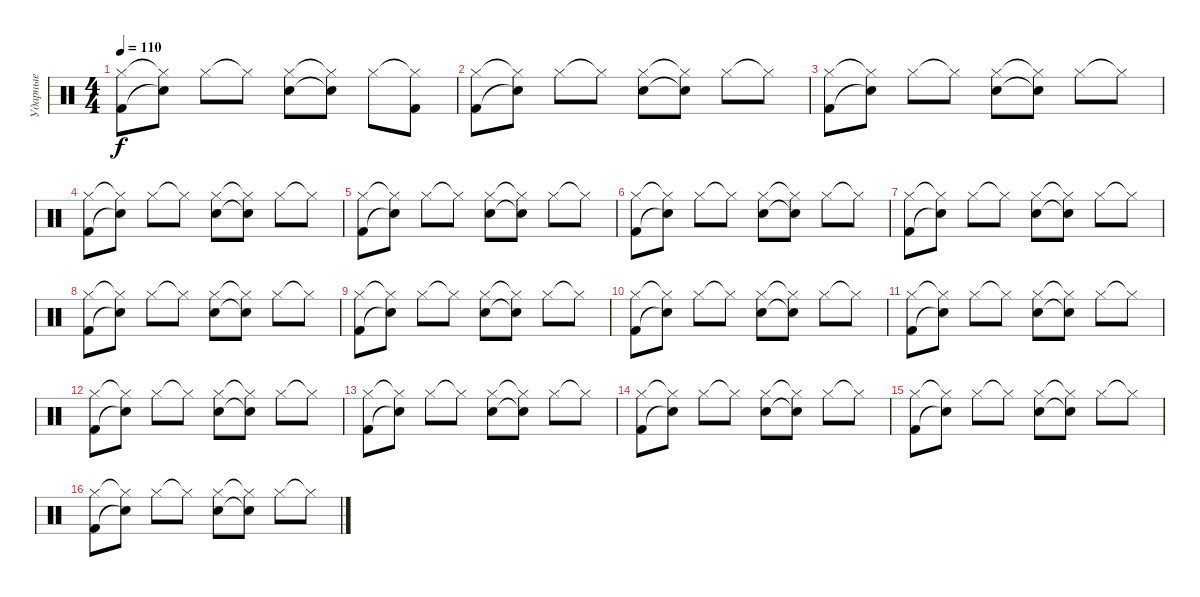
\track ("Ударные" "Ударные") {instrument percussion}
\staff {score}
\articulation defaults
\ts (4 4)
\tempo 110
\clef neutral
\ks c
("Hi-Hat (closed)" "Kick (hit) 2").8{dy f} ("Hi-Hat (closed)"{t} "Snare (hit)"{t}).8 "Hi-Hat (closed)".8 "Hi-Hat (closed)"{t}.8 ("Hi-Hat (closed)" "Snare (hit) 2").8 ("Hi-Hat (closed)"{t} "Snare (hit)"{t}).8 "Hi-Hat (closed)".8 ("Hi-Hat (closed)"{t} "Kick (hit) 2").8 |
("Hi-Hat (closed)" "Kick (hit) 2").8 ("Hi-Hat (closed)"{t} "Snare (hit)"{t}).8 "Hi-Hat (closed)".8 "Hi-Hat (closed)"{t}.8 ("Hi-Hat (closed)" "Snare (hit) 2").8 ("Hi-Hat (closed)"{t} "Snare (hit)"{t}).8 "Hi-Hat (closed)".8 "Hi-Hat (closed)"{t}.8 |
("Hi-Hat (closed)" "Kick (hit) 2").8 ("Hi-Hat (closed)"{t} "Snare (hit)"{t}).8 "Hi-Hat (closed)".8 "Hi-Hat (closed)"{t}.8 ("Hi-Hat (closed)" "Snare (hit) 2").8 ("Hi-Hat (closed)"{t} "Snare (hit)"{t}).8 "Hi-Hat (closed)".8 "Hi-Hat (closed)"{t}.8 |
("Hi-Hat (closed)" "Kick (hit) 2").8 ("Hi-Hat (closed)"{t} "Snare (hit)"{t}).8 "Hi-Hat (closed)".8 "Hi-Hat (closed)"{t}.8 ("Hi-Hat (closed)" "Snare (hit) 2").8 ("Hi-Hat (closed)"{t} "Snare (hit)"{t}).8 "Hi-Hat (closed)".8 "Hi-Hat (closed)"{t}.8 |
("Hi-Hat (closed)" "Kick (hit) 2").8 ("Hi-Hat (closed)"{t} "Snare (hit)"{t}).8 "Hi-Hat (closed)".8 "Hi-Hat (closed)"{t}.8 ("Hi-Hat (closed)" "Snare (hit) 2").8 ("Hi-Hat (closed)"{t} "Snare (hit)"{t}).8 "Hi-Hat (closed)".8 "Hi-Hat (closed)"{t}.8 |
("Hi-Hat (closed)" "Kick (hit) 2").8 ("Hi-Hat (closed)"{t} "Snare (hit)"{t}).8 "Hi-Hat (closed)".8 "Hi-Hat (closed)"{t}.8 ("Hi-Hat (closed)" "Snare (hit) 2").8 ("Hi-Hat (closed)"{t} "Snare (hit)"{t}).8 "Hi-Hat (closed)".8 "Hi-Hat (closed)"{t}.8 |
("Hi-Hat (closed)" "Kick (hit) 2").8 ("Hi-Hat (closed)"{t} "Snare (hit)"{t}).8 "Hi-Hat (closed)".8 "Hi-Hat (closed)"{t}.8 ("Hi-Hat (closed)" "Snare (hit) 2").8 ("Hi-Hat (closed)"{t} "Snare (hit)"{t}).8 "Hi-Hat (closed)".8 "Hi-Hat (closed)"{t}.8 |
("Hi-Hat (closed)" "Kick (hit) 2").8 ("Hi-Hat (closed)"{t} "Snare (hit)"{t}).8 "Hi-Hat (closed)".8 "Hi-Hat (closed)"{t}.8 ("Hi-Hat (closed)" "Snare (hit) 2").8 ("Hi-Hat (closed)"{t} "Snare (hit)"{t}).8 "Hi-Hat (closed)".8 "Hi-Hat (closed)"{t}.8 |
("Hi-Hat (closed)" "Kick (hit) 2").8 ("Hi-Hat (closed)"{t} "Snare (hit)"{t}).8 "Hi-Hat (closed)".8 "Hi-Hat (closed)"{t}.8 ("Hi-Hat (closed)" "Snare (hit) 2").8 ("Hi-Hat (closed)"{t} "Snare (hit)"{t}).8 "Hi-Hat (closed)".8 "Hi-Hat (closed)"{t}.8 |
("Hi-Hat (closed)" "Kick (hit) 2").8 ("Hi-Hat (closed)"{t} "Snare (hit)"{t}).8 "Hi-Hat (closed)".8 "Hi-Hat (closed)"{t}.8 ("Hi-Hat (closed)" "Snare (hit) 2").8 ("Hi-Hat (closed)"{t} "Snare (hit)"{t}).8 "Hi-Hat (closed)".8 "Hi-Hat (closed)"{t}.8 |
("Hi-Hat (closed)" "Kick (hit) 2").8 ("Hi-Hat (closed)"{t} "Snare (hit)"{t}).8 "Hi-Hat (closed)".8 "Hi-Hat (closed)"{t}.8 ("Hi-Hat (closed)" "Snare (hit) 2").8 ("Hi-Hat (closed)"{t} "Snare (hit)"{t}).8 "Hi-Hat (closed)".8 "Hi-Hat (closed)"{t}.8 |
("Hi-Hat (closed)" "Kick (hit) 2").8 ("Hi-Hat (closed)"{t} "Snare (hit)"{t}).8 "Hi-Hat (closed)".8 "Hi-Hat (closed)"{t}.8 ("Hi-Hat (closed)" "Snare (hit) 2").8 ("Hi-Hat (closed)"{t} "Snare (hit)"{t}).8 "Hi-Hat (closed)".8 "Hi-Hat (closed)"{t}.8 |
("Hi-Hat (closed)" "Kick (hit) 2").8 ("Hi-Hat (closed)"{t} "Snare (hit)"{t}).8 "Hi-Hat (closed)".8 "Hi-Hat (closed)"{t}.8 ("Hi-Hat (closed)" "Snare (hit) 2").8 ("Hi-Hat (closed)"{t} "Snare (hit)"{t}).8 "Hi-Hat (closed)".8 "Hi-Hat (closed)"{t}.8 |
("Hi-Hat (closed)" "Kick (hit) 2").8 ("Hi-Hat (closed)"{t} "Snare (hit)"{t}).8 "Hi-Hat (closed)".8 "Hi-Hat (closed)"{t}.8 ("Hi-Hat (closed)" "Snare (hit) 2").8 ("Hi-Hat (closed)"{t} "Snare (hit)"{t}).8 "Hi-Hat (closed)".8 "Hi-Hat (closed)"{t}.8 |
("Hi-Hat (closed)" "Kick (hit) 2").8 ("Hi-Hat (closed)"{t} "Snare (hit)"{t}).8 "Hi-Hat (closed)".8 "Hi-Hat (closed)"{t}.8 ("Hi-Hat (closed)" "Snare (hit) 2").8 ("Hi-Hat (closed)"{t} "Snare (hit)"{t}).8 "Hi-Hat (closed)".8 "Hi-Hat (closed)"{t}.8 |
("Hi-Hat (closed)" "Kick (hit) 2").8 ("Hi-Hat (closed)"{t} "Snare (hit)"{t}).8 "Hi-Hat (closed)".8 "Hi-Hat (closed)"{t}.8 ("Hi-Hat (closed)" "Snare (hit) 2").8 ("Hi-Hat (closed)"{t} "Snare (hit)"{t}).8 "Hi-Hat (closed)".8 "Hi-Hat (closed)"{t}.8
